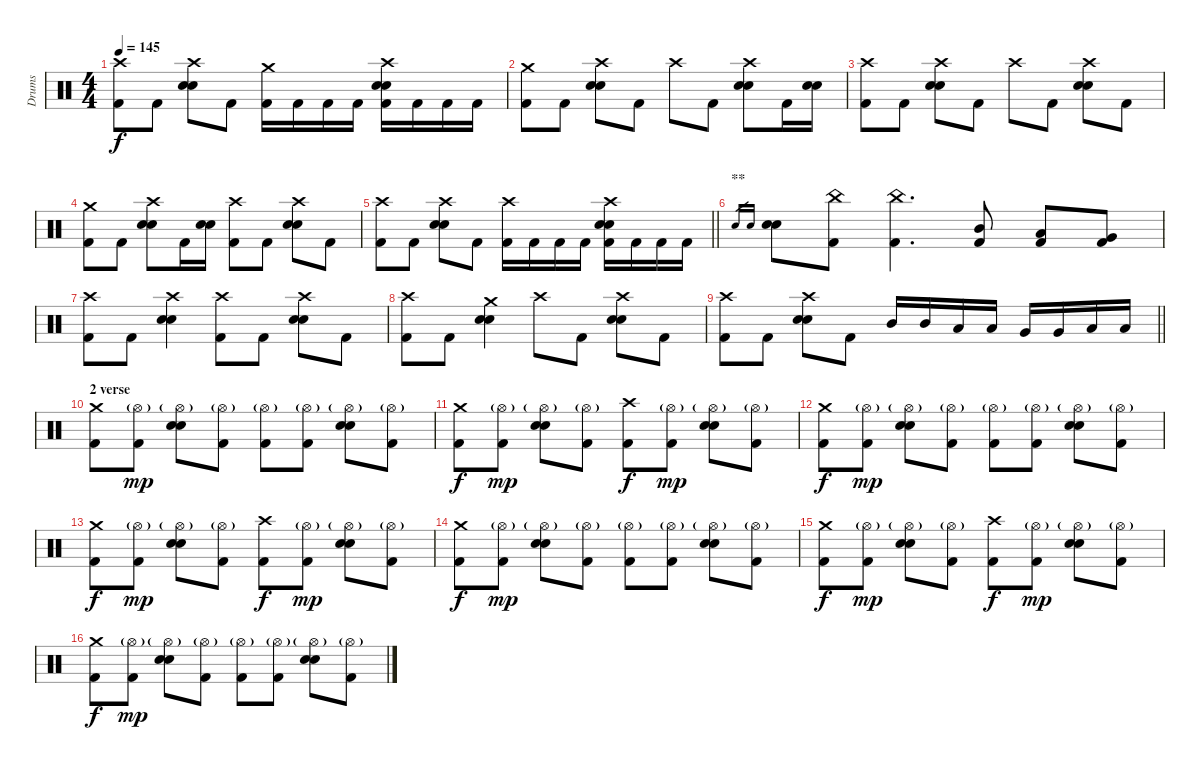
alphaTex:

\track ("Drums" "Drums") {instrument percussion}
\staff {score}
\articulation defaults
\ts (4 4)
\tempo 145
\clef neutral
\ks c
("Crash high (hit)" "Kick (hit) 2").8{dy f} "Kick (hit) 2".8 ("Crash high (hit)" "Electric Snare (hit)" "Electric Snare (hit)").8 "Kick (hit) 2".8 ("Crash medium (hit)" "Kick (hit) 2").16 "Kick (hit) 2".16 "Kick (hit) 2".16 "Kick (hit) 2".16 ("Crash high (hit)" "Electric Snare (hit)" "Electric Snare (hit)" "Kick (hit) 2").16 "Kick (hit) 2".16 "Kick (hit) 2".16 "Kick (hit) 2".16 |
("Crash medium (hit)" "Kick (hit) 2").8 "Kick (hit) 2".8 ("Crash high (hit)" "Electric Snare (hit)" "Electric Snare (hit)").8 "Kick (hit) 2".8 "Crash high (hit)".8 "Kick (hit) 2".8 ("Crash high (hit)" "Electric Snare (hit)" "Electric Snare (hit)").8 "Kick (hit) 2".16 ("Electric Snare (hit)" "Electric Snare (hit)").16 |
("Crash high (hit)" "Kick (hit) 2").8 "Kick (hit) 2".8 ("Crash high (hit)" "Electric Snare (hit)" "Electric Snare (hit)").8 "Kick (hit) 2".8 "Crash high (hit)".8 "Kick (hit) 2".8 ("Crash high (hit)" "Electric Snare (hit)" "Electric Snare (hit)").8 "Kick (hit) 2".8 |
("Crash medium (hit)" "Kick (hit) 2").8 "Kick (hit) 2".8 ("Crash high (hit)" "Electric Snare (hit)" "Electric Snare (hit)").8 "Kick (hit) 2".16 ("Electric Snare (hit)" "Electric Snare (hit)").16 ("Crash high (hit)" "Kick (hit) 2").8 "Kick (hit) 2".8 ("Crash high (hit)" "Electric Snare (hit)" "Electric Snare (hit)").8 "Kick (hit) 2".8 |
\barLineRight lightlight
("Crash high (hit)" "Kick (hit) 2").8 "Kick (hit) 2".8 ("Crash high (hit)" "Electric Snare (hit)" "Electric Snare (hit)").8 "Kick (hit) 2".8 ("Crash high (hit)" "Kick (hit) 2").16 "Kick (hit) 2".16 "Kick (hit) 2".16 "Kick (hit) 2".16 ("Crash high (hit)" "Electric Snare (hit)" "Electric Snare (hit)" "Kick (hit) 2").16 "Kick (hit) 2".16 "Kick (hit) 2".16 "Kick (hit) 2".16 |
\section ("" "**")
"Electric Snare (hit)".16{gr} "Electric Snare (hit)".16{gr} ("Electric Snare (hit)" "Electric Snare (hit)").8 ("China (hit)" "Kick (hit) 2").8 ("China (hit)" "Kick (hit) 2").4{d} ("Mid Tom (hit)" "Kick (hit) 2").8 ("Low Tom (hit)" "Kick (hit) 2").8 ("Very Low Tom (hit)" "Kick (hit) 2").8 |
("Crash high (hit)" "Kick (hit) 2").8 "Kick (hit) 2".8 ("Crash high (hit)" "Electric Snare (hit)" "Electric Snare (hit)").4 ("Crash high (hit)" "Kick (hit) 2").8 "Kick (hit) 2".8 ("Crash high (hit)" "Electric Snare (hit)" "Electric Snare (hit)").8 "Kick (hit) 2".8 |
("Crash high (hit)" "Kick (hit) 2").8 "Kick (hit) 2".8 ("Crash medium (hit)" "Electric Snare (hit)" "Electric Snare (hit)").4 "Crash high (hit)".8 "Kick (hit) 2".8 ("Crash high (hit)" "Electric Snare (hit)" "Electric Snare (hit)").8 "Kick (hit) 2".8 |
\barLineRight lightlight
("Crash high (hit)" "Kick (hit) 2").8 "Kick (hit) 2".8 ("Crash high (hit)" "Electric Snare (hit)" "Electric Snare (hit)").8 "Kick (hit) 2".8 "Mid Tom (hit)".16 "Mid Tom (hit)".16 "Low Tom (hit)".16 "Low Tom (hit)".16 "Very Low Tom (hit)".16 "Very Low Tom (hit)".16 "Low Floor Tom (hit)".16 "Low Floor Tom (hit)".16 |
\section ("" "2 verse")
("Crash medium (hit)" "Kick (hit) 2").8 ("Hi-Hat (open)"{g} "Kick (hit) 2").8{dy mp} ("Hi-Hat (open)"{g} "Electric Snare (hit)" "Electric Snare (hit)").8 ("Hi-Hat (open)"{g} "Kick (hit) 2").8 ("Hi-Hat (open)"{g} "Kick (hit) 2").8 ("Hi-Hat (open)"{g} "Kick (hit) 2").8 ("Hi-Hat (open)"{g} "Electric Snare (hit)" "Electric Snare (hit)").8 ("Hi-Hat (open)"{g} "Kick (hit) 2").8 |
("Crash medium (hit)" "Kick (hit) 2").8{dy f} ("Hi-Hat (open)"{g} "Kick (hit) 2").8{dy mp} ("Hi-Hat (open)"{g} "Electric Snare (hit)" "Electric Snare (hit)").8 ("Hi-Hat (open)"{g} "Kick (hit) 2").8 ("Crash high (hit)" "Kick (hit) 2").8{dy f} ("Hi-Hat (open)"{g} "Kick (hit) 2").8{dy mp} ("Hi-Hat (open)"{g} "Electric Snare (hit)" "Electric Snare (hit)").8 ("Hi-Hat (open)"{g} "Kick (hit) 2").8 |
("Crash medium (hit)" "Kick (hit) 2").8{dy f} ("Hi-Hat (open)"{g} "Kick (hit) 2").8{dy mp} ("Hi-Hat (open)"{g} "Electric Snare (hit)" "Electric Snare (hit)").8 ("Hi-Hat (open)"{g} "Kick (hit) 2").8 ("Hi-Hat (open)"{g} "Kick (hit) 2").8 ("Hi-Hat (open)"{g} "Kick (hit) 2").8 ("Hi-Hat (open)"{g} "Electric Snare (hit)" "Electric Snare (hit)").8 ("Hi-Hat (open)"{g} "Kick (hit) 2").8 |
("Crash medium (hit)" "Kick (hit) 2").8{dy f} ("Hi-Hat (open)"{g} "Kick (hit) 2").8{dy mp} ("Hi-Hat (open)"{g} "Electric Snare (hit)" "Electric Snare (hit)").8 ("Hi-Hat (open)"{g} "Kick (hit) 2").8 ("Crash high (hit)" "Kick (hit) 2").8{dy f} ("Hi-Hat (open)"{g} "Kick (hit) 2").8{dy mp} ("Hi-Hat (open)"{g} "Electric Snare (hit)" "Electric Snare (hit)").8 ("Hi-Hat (open)"{g} "Kick (hit) 2").8 |
("Crash medium (hit)" "Kick (hit) 2").8{dy f} ("Hi-Hat (open)"{g} "Kick (hit) 2").8{dy mp} ("Hi-Hat (open)"{g} "Electric Snare (hit)" "Electric Snare (hit)").8 ("Hi-Hat (open)"{g} "Kick (hit) 2").8 ("Hi-Hat (open)"{g} "Kick (hit) 2").8 ("Hi-Hat (open)"{g} "Kick (hit) 2").8 ("Hi-Hat (open)"{g} "Electric Snare (hit)" "Electric Snare (hit)").8 ("Hi-Hat (open)"{g} "Kick (hit) 2").8 |
("Crash medium (hit)" "Kick (hit) 2").8{dy f} ("Hi-Hat (open)"{g} "Kick (hit) 2").8{dy mp} ("Hi-Hat (open)"{g} "Electric Snare (hit)" "Electric Snare (hit)").8 ("Hi-Hat (open)"{g} "Kick (hit) 2").8 ("Crash high (hit)" "Kick (hit) 2").8{dy f} ("Hi-Hat (open)"{g} "Kick (hit) 2").8{dy mp} ("Hi-Hat (open)"{g} "Electric Snare (hit)" "Electric Snare (hit)").8 ("Hi-Hat (open)"{g} "Kick (hit) 2").8 |
("Crash medium (hit)" "Kick (hit) 2").8{dy f} ("Hi-Hat (open)"{g} "Kick (hit) 2").8{dy mp} ("Hi-Hat (open)"{g} "Electric Snare (hit)" "Electric Snare (hit)").8 ("Hi-Hat (open)"{g} "Kick (hit) 2").8 ("Hi-Hat (open)"{g} "Kick (hit) 2").8 ("Hi-Hat (open)"{g} "Kick (hit) 2").8 ("Hi-Hat (open)"{g} "Electric Snare (hit)" "Electric Snare (hit)").8 ("Hi-Hat (open)"{g} "Kick (hit) 2").8
